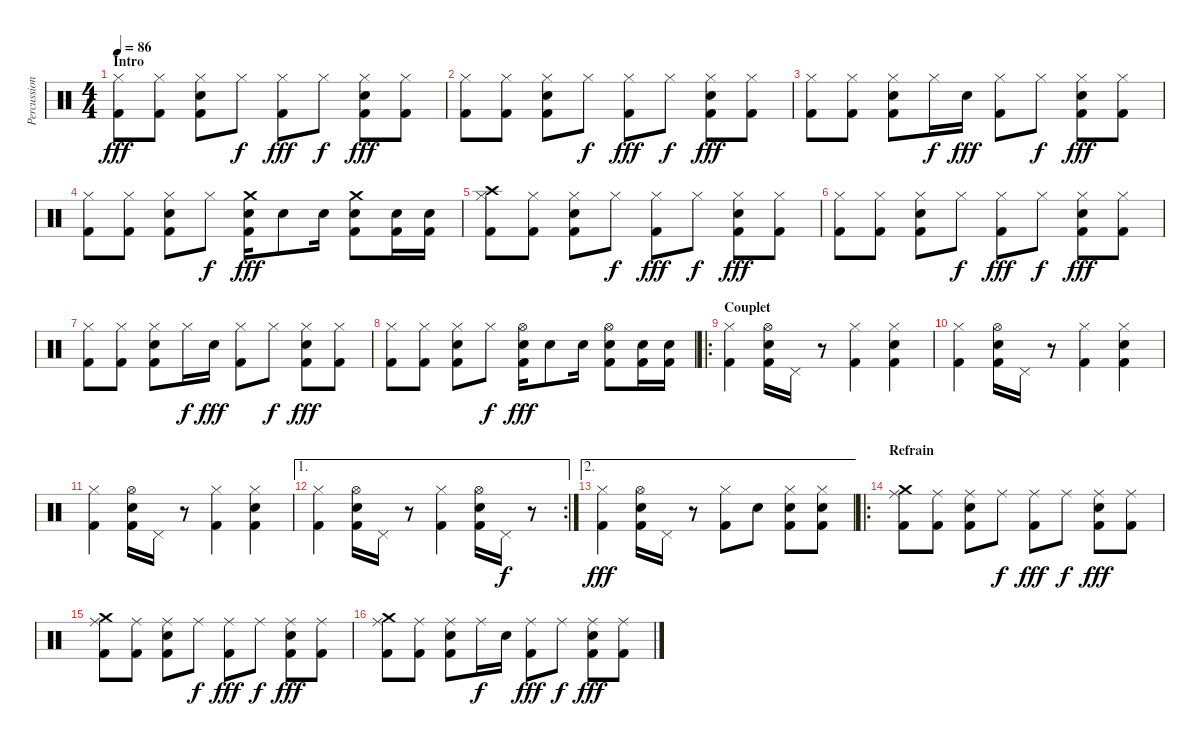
\track ("Percussions" "Percussion") {instrument percussion}
\staff {score}
\articulation defaults
\ts (4 4)
\section ("" "Intro")
\tempo 86
\clef neutral
\ks c
("Hi-Hat (closed)" "Kick (hit) 2").8{dy fff} ("Hi-Hat (closed)" "Kick (hit) 2").8 ("Hi-Hat (closed)" "Snare (hit) 2" "Kick (hit) 2").8 "Hi-Hat (closed)".8{dy f} ("Hi-Hat (closed)" "Kick (hit) 2").8{dy fff} "Hi-Hat (closed)".8{dy f} ("Hi-Hat (closed)" "Snare (hit) 2" "Kick (hit) 2").8{dy fff} ("Hi-Hat (closed)" "Kick (hit) 2").8 |
("Hi-Hat (closed)" "Kick (hit) 2").8 ("Hi-Hat (closed)" "Kick (hit) 2").8 ("Hi-Hat (closed)" "Snare (hit) 2" "Kick (hit) 2").8 "Hi-Hat (closed)".8{dy f} ("Hi-Hat (closed)" "Kick (hit) 2").8{dy fff} "Hi-Hat (closed)".8{dy f} ("Hi-Hat (closed)" "Snare (hit) 2" "Kick (hit) 2").8{dy fff} ("Hi-Hat (closed)" "Kick (hit) 2").8 |
("Hi-Hat (closed)" "Kick (hit) 2").8 ("Hi-Hat (closed)" "Kick (hit) 2").8 ("Hi-Hat (closed)" "Snare (hit) 2" "Kick (hit) 2").8 "Hi-Hat (closed)".16{dy f} "Snare (hit) 2".16{dy fff} ("Hi-Hat (closed)" "Kick (hit) 2").8 "Hi-Hat (closed)".8{dy f} ("Hi-Hat (closed)" "Snare (hit) 2" "Kick (hit) 2").8{dy fff} ("Hi-Hat (closed)" "Kick (hit) 2").8 |
("Hi-Hat (closed)" "Kick (hit) 2").8 ("Hi-Hat (closed)" "Kick (hit) 2").8 ("Hi-Hat (closed)" "Snare (hit) 2" "Kick (hit) 2").8 "Hi-Hat (closed)".8{dy f} ("Crash medium (hit)" "Snare (hit) 2" "Kick (hit) 2").16{dy fff} "Snare (hit) 2".8 "Snare (hit) 2".16 ("Crash medium (hit)" "Snare (hit) 2" "Kick (hit) 2").8 ("Snare (hit) 2" "Kick (hit) 2").16 ("Snare (hit) 2" "Kick (hit) 2").16 |
("Hi-Hat (closed)" "Crash high (hit)" "Kick (hit) 2").8 ("Hi-Hat (closed)" "Kick (hit) 2").8 ("Hi-Hat (closed)" "Snare (hit) 2" "Kick (hit) 2").8 "Hi-Hat (closed)".8{dy f} ("Hi-Hat (closed)" "Kick (hit) 2").8{dy fff} "Hi-Hat (closed)".8{dy f} ("Hi-Hat (closed)" "Snare (hit) 2" "Kick (hit) 2").8{dy fff} ("Hi-Hat (closed)" "Kick (hit) 2").8 |
("Hi-Hat (closed)" "Kick (hit) 2").8 ("Hi-Hat (closed)" "Kick (hit) 2").8 ("Hi-Hat (closed)" "Snare (hit) 2" "Kick (hit) 2").8 "Hi-Hat (closed)".8{dy f} ("Hi-Hat (closed)" "Kick (hit) 2").8{dy fff} "Hi-Hat (closed)".8{dy f} ("Hi-Hat (closed)" "Snare (hit) 2" "Kick (hit) 2").8{dy fff} ("Hi-Hat (closed)" "Kick (hit) 2").8 |
("Hi-Hat (closed)" "Kick (hit) 2").8 ("Hi-Hat (closed)" "Kick (hit) 2").8 ("Hi-Hat (closed)" "Snare (hit) 2" "Kick (hit) 2").8 "Hi-Hat (closed)".16{dy f} "Snare (hit) 2".16{dy fff} ("Hi-Hat (closed)" "Kick (hit) 2").8 "Hi-Hat (closed)".8{dy f} ("Hi-Hat (closed)" "Snare (hit) 2" "Kick (hit) 2").8{dy fff} ("Hi-Hat (closed)" "Kick (hit) 2").8 |
("Hi-Hat (closed)" "Kick (hit) 2").8 ("Hi-Hat (closed)" "Kick (hit) 2").8 ("Hi-Hat (closed)" "Snare (hit) 2" "Kick (hit) 2").8 "Hi-Hat (closed)".8{dy f} ("Hi-Hat (open)" "Snare (hit) 2" "Kick (hit) 2").16{dy fff} "Snare (hit) 2".8 "Snare (hit) 2".16 ("Hi-Hat (open)" "Snare (hit) 2" "Kick (hit) 2").8 ("Snare (hit) 2" "Kick (hit) 2").16 ("Snare (hit) 2" "Kick (hit) 2").16 |
\ro
\section ("" "Couplet")
("Hi-Hat (closed)" "Kick (hit) 2").4 ("Hi-Hat (open)" "Snare (hit) 2" "Kick (hit) 2").16 "Pedal Hi-Hat (hit)".16 r.8 ("Hi-Hat (closed)" "Kick (hit) 2").4 ("Hi-Hat (closed)" "Snare (hit) 2" "Kick (hit) 2").4 |
("Hi-Hat (closed)" "Kick (hit) 2").4 ("Hi-Hat (open)" "Snare (hit) 2" "Kick (hit) 2").16 "Pedal Hi-Hat (hit)".16 r.8 ("Hi-Hat (closed)" "Kick (hit) 2").4 ("Hi-Hat (closed)" "Snare (hit) 2" "Kick (hit) 2").4 |
("Hi-Hat (closed)" "Kick (hit) 2").4 ("Hi-Hat (open)" "Snare (hit) 2" "Kick (hit) 2").16 "Pedal Hi-Hat (hit)".16 r.8 ("Hi-Hat (closed)" "Kick (hit) 2").4 ("Hi-Hat (closed)" "Snare (hit) 2" "Kick (hit) 2").4 |
\ae 1
\rc 2
("Hi-Hat (closed)" "Kick (hit) 2").4 ("Hi-Hat (open)" "Snare (hit) 2" "Kick (hit) 2").16 "Pedal Hi-Hat (hit)".16 r.8 ("Hi-Hat (closed)" "Kick (hit) 2").4 ("Hi-Hat (open)" "Snare (hit) 2" "Kick (hit) 2").16 "Pedal Hi-Hat (hit)".16{dy f} r.8 |
\ae 2
("Hi-Hat (closed)" "Kick (hit) 2").4{dy fff} ("Hi-Hat (open)" "Snare (hit) 2" "Kick (hit) 2").16 "Pedal Hi-Hat (hit)".16 r.8 ("Hi-Hat (closed)" "Kick (hit) 2").8 "Snare (hit) 2".8 ("Hi-Hat (closed)" "Snare (hit) 2" "Kick (hit) 2").8 ("Hi-Hat (closed)" "Snare (hit) 2" "Kick (hit) 2").8 |
\ro
\section ("" "Refrain")
("Ride (middle)" "Crash medium (hit)" "Kick (hit) 2").8 ("Ride (middle)" "Kick (hit) 2").8 ("Ride (middle)" "Snare (hit) 2" "Kick (hit) 2").8 "Ride (middle)".8{dy f} ("Ride (middle)" "Kick (hit) 2").8{dy fff} "Ride (middle)".8{dy f} ("Ride (middle)" "Snare (hit) 2" "Kick (hit) 2").8{dy fff} ("Ride (middle)" "Kick (hit) 2").8 |
("Ride (middle)" "Crash medium (hit)" "Kick (hit) 2").8 ("Ride (middle)" "Kick (hit) 2").8 ("Ride (middle)" "Snare (hit) 2" "Kick (hit) 2").8 "Ride (middle)".8{dy f} ("Ride (middle)" "Kick (hit) 2").8{dy fff} "Ride (middle)".8{dy f} ("Ride (middle)" "Snare (hit) 2" "Kick (hit) 2").8{dy fff} ("Ride (middle)" "Kick (hit) 2").8 |
("Ride (middle)" "Crash medium (hit)" "Kick (hit) 2").8 ("Ride (middle)" "Kick (hit) 2").8 ("Ride (middle)" "Snare (hit) 2" "Kick (hit) 2").8 "Ride (middle)".16{dy f} "Snare (hit) 2".16 ("Ride (middle)" "Kick (hit) 2").8{dy fff} "Ride (middle)".8{dy f} ("Ride (middle)" "Snare (hit) 2" "Kick (hit) 2").8{dy fff} ("Ride (middle)" "Kick (hit) 2").8
